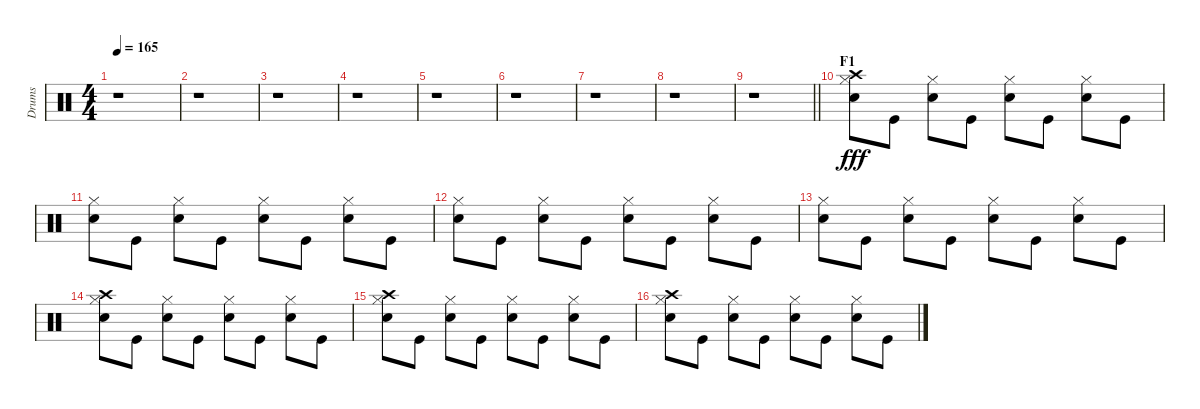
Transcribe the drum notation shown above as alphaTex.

\track ("Drums" "Drums") {instrument percussion}
\staff {score}
\articulation defaults
\ts (4 4)
\tempo 165
\clef neutral
\ks c
r.1{dy fff} |
r.1 |
r.1 |
r.1 |
r.1 |
r.1 |
r.1 |
r.1 |
\barLineRight lightlight
r.1 |
\section ("" "F1")
("Hi-Hat (closed)" "Crash high (hit)" "Snare (hit) 2").8 "Kick (hit)".8 ("Hi-Hat (closed)" "Snare (hit) 2").8 "Kick (hit)".8 ("Hi-Hat (closed)" "Snare (hit) 2").8 "Kick (hit)".8 ("Hi-Hat (closed)" "Snare (hit) 2").8 "Kick (hit)".8 |
("Hi-Hat (closed)" "Snare (hit) 2").8 "Kick (hit)".8 ("Hi-Hat (closed)" "Snare (hit) 2").8 "Kick (hit)".8 ("Hi-Hat (closed)" "Snare (hit) 2").8 "Kick (hit)".8 ("Hi-Hat (closed)" "Snare (hit) 2").8 "Kick (hit)".8 |
("Hi-Hat (closed)" "Snare (hit) 2").8 "Kick (hit)".8 ("Hi-Hat (closed)" "Snare (hit) 2").8 "Kick (hit)".8 ("Hi-Hat (closed)" "Snare (hit) 2").8 "Kick (hit)".8 ("Hi-Hat (closed)" "Snare (hit) 2").8 "Kick (hit)".8 |
("Hi-Hat (closed)" "Snare (hit) 2").8 "Kick (hit)".8 ("Hi-Hat (closed)" "Snare (hit) 2").8 "Kick (hit)".8 ("Hi-Hat (closed)" "Snare (hit) 2").8 "Kick (hit)".8 ("Hi-Hat (closed)" "Snare (hit) 2").8 "Kick (hit)".8 |
("Hi-Hat (closed)" "Crash high (hit)" "Snare (hit) 2").8 "Kick (hit)".8 ("Hi-Hat (closed)" "Snare (hit) 2").8 "Kick (hit)".8 ("Hi-Hat (closed)" "Snare (hit) 2").8 "Kick (hit)".8 ("Hi-Hat (closed)" "Snare (hit) 2").8 "Kick (hit)".8 |
("Hi-Hat (closed)" "Crash high (hit)" "Snare (hit) 2").8 "Kick (hit)".8 ("Hi-Hat (closed)" "Snare (hit) 2").8 "Kick (hit)".8 ("Hi-Hat (closed)" "Snare (hit) 2").8 "Kick (hit)".8 ("Hi-Hat (closed)" "Snare (hit) 2").8 "Kick (hit)".8 |
("Hi-Hat (closed)" "Crash high (hit)" "Snare (hit) 2").8 "Kick (hit)".8 ("Hi-Hat (closed)" "Snare (hit) 2").8 "Kick (hit)".8 ("Hi-Hat (closed)" "Snare (hit) 2").8 "Kick (hit)".8 ("Hi-Hat (closed)" "Snare (hit) 2").8 "Kick (hit)".8
